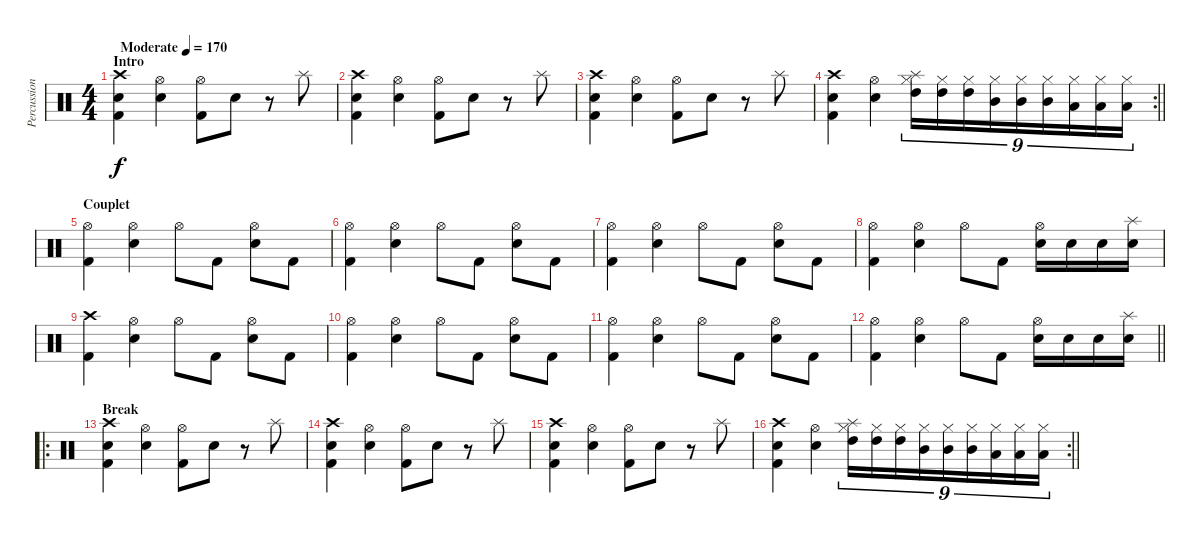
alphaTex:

\track ("Percussions" "Percussion") {instrument percussion}
\staff {score}
\articulation defaults
\ts (4 4)
\section ("" "Intro")
\tempo (170 "Moderate")
\clef neutral
\ks c
("Crash high (hit)" "Snare (hit) 2" "Kick (hit) 2").4{dy f} ("Hi-Hat (open)" "Snare (hit) 2").4 ("Hi-Hat (open)" "Kick (hit) 2").8 "Snare (hit) 2".8 r.8 "Splash (hit)".8 |
("Crash high (hit)" "Snare (hit) 2" "Kick (hit) 2").4 ("Hi-Hat (open)" "Snare (hit) 2").4 ("Hi-Hat (open)" "Kick (hit) 2").8 "Snare (hit) 2".8 r.8 "Splash (hit)".8 |
("Crash high (hit)" "Snare (hit) 2" "Kick (hit) 2").4 ("Hi-Hat (open)" "Snare (hit) 2").4 ("Hi-Hat (open)" "Kick (hit) 2").8 "Snare (hit) 2".8 r.8 "Splash (hit)".8 |
\rc 2
\barLineRight lightlight
("Crash high (hit)" "Snare (hit) 2" "Kick (hit) 2").4 ("Hi-Hat (open)" "Snare (hit) 2").4 ("Splash (hit)" "High Tom (hit)" "Hi-Hat (closed)").16{tu (9 8)} ("High Tom (hit)" "Hi-Hat (closed)").16{tu (9 8)} ("High Tom (hit)" "Hi-Hat (closed)").16{tu (9 8)} ("Mid Tom (hit)" "Hi-Hat (closed)").16{tu (9 8)} ("Mid Tom (hit)" "Hi-Hat (closed)").16{tu (9 8)} ("Mid Tom (hit)" "Hi-Hat (closed)").16{tu (9 8)} ("Low Tom (hit)" "Hi-Hat (closed)").16{tu (9 8)} ("Low Tom (hit)" "Hi-Hat (closed)").16{tu (9 8)} ("Low Tom (hit)" "Hi-Hat (closed)").16{tu (9 8)} |
\section ("" "Couplet")
("Hi-Hat (open)" "Kick (hit) 2").4 ("Hi-Hat (open)" "Snare (hit) 2").4 "Hi-Hat (open)".8 "Kick (hit) 2".8 ("Hi-Hat (open)" "Snare (hit) 2").8 "Kick (hit) 2".8 |
("Hi-Hat (open)" "Kick (hit) 2").4 ("Hi-Hat (open)" "Snare (hit) 2").4 "Hi-Hat (open)".8 "Kick (hit) 2".8 ("Hi-Hat (open)" "Snare (hit) 2").8 "Kick (hit) 2".8 |
("Hi-Hat (open)" "Kick (hit) 2").4 ("Hi-Hat (open)" "Snare (hit) 2").4 "Hi-Hat (open)".8 "Kick (hit) 2".8 ("Hi-Hat (open)" "Snare (hit) 2").8 "Kick (hit) 2".8 |
("Hi-Hat (open)" "Kick (hit) 2").4 ("Hi-Hat (open)" "Snare (hit) 2").4 "Hi-Hat (open)".8 "Kick (hit) 2".8 ("Hi-Hat (open)" "Snare (hit) 2").16 "Snare (hit) 2".16 "Snare (hit) 2".16 ("Splash (hit)" "Snare (hit) 2").16 |
("Crash high (hit)" "Kick (hit) 2").4 ("Hi-Hat (open)" "Snare (hit) 2").4 "Hi-Hat (open)".8 "Kick (hit) 2".8 ("Hi-Hat (open)" "Snare (hit) 2").8 "Kick (hit) 2".8 |
("Hi-Hat (open)" "Kick (hit) 2").4 ("Hi-Hat (open)" "Snare (hit) 2").4 "Hi-Hat (open)".8 "Kick (hit) 2".8 ("Hi-Hat (open)" "Snare (hit) 2").8 "Kick (hit) 2".8 |
("Hi-Hat (open)" "Kick (hit) 2").4 ("Hi-Hat (open)" "Snare (hit) 2").4 "Hi-Hat (open)".8 "Kick (hit) 2".8 ("Hi-Hat (open)" "Snare (hit) 2").8 "Kick (hit) 2".8 |
\barLineRight lightlight
("Hi-Hat (open)" "Kick (hit) 2").4 ("Hi-Hat (open)" "Snare (hit) 2").4 "Hi-Hat (open)".8 "Kick (hit) 2".8 ("Hi-Hat (open)" "Snare (hit) 2").16 "Snare (hit) 2".16 "Snare (hit) 2".16 ("Splash (hit)" "Snare (hit) 2").16 |
\ro
\section ("" "Break")
("Crash high (hit)" "Snare (hit) 2" "Kick (hit) 2").4 ("Hi-Hat (open)" "Snare (hit) 2").4 ("Hi-Hat (open)" "Kick (hit) 2").8 "Snare (hit) 2".8 r.8 "Splash (hit)".8 |
("Crash high (hit)" "Snare (hit) 2" "Kick (hit) 2").4 ("Hi-Hat (open)" "Snare (hit) 2").4 ("Hi-Hat (open)" "Kick (hit) 2").8 "Snare (hit) 2".8 r.8 "Splash (hit)".8 |
("Crash high (hit)" "Snare (hit) 2" "Kick (hit) 2").4 ("Hi-Hat (open)" "Snare (hit) 2").4 ("Hi-Hat (open)" "Kick (hit) 2").8 "Snare (hit) 2".8 r.8 "Splash (hit)".8 |
\rc 2
\barLineRight lightlight
("Crash high (hit)" "Snare (hit) 2" "Kick (hit) 2").4 ("Hi-Hat (open)" "Snare (hit) 2").4 ("Splash (hit)" "High Tom (hit)" "Hi-Hat (closed)").16{tu (9 8)} ("High Tom (hit)" "Hi-Hat (closed)").16{tu (9 8)} ("High Tom (hit)" "Hi-Hat (closed)").16{tu (9 8)} ("Mid Tom (hit)" "Hi-Hat (closed)").16{tu (9 8)} ("Mid Tom (hit)" "Hi-Hat (closed)").16{tu (9 8)} ("Mid Tom (hit)" "Hi-Hat (closed)").16{tu (9 8)} ("Low Tom (hit)" "Hi-Hat (closed)").16{tu (9 8)} ("Low Tom (hit)" "Hi-Hat (closed)").16{tu (9 8)} ("Low Tom (hit)" "Hi-Hat (closed)").16{tu (9 8)}
